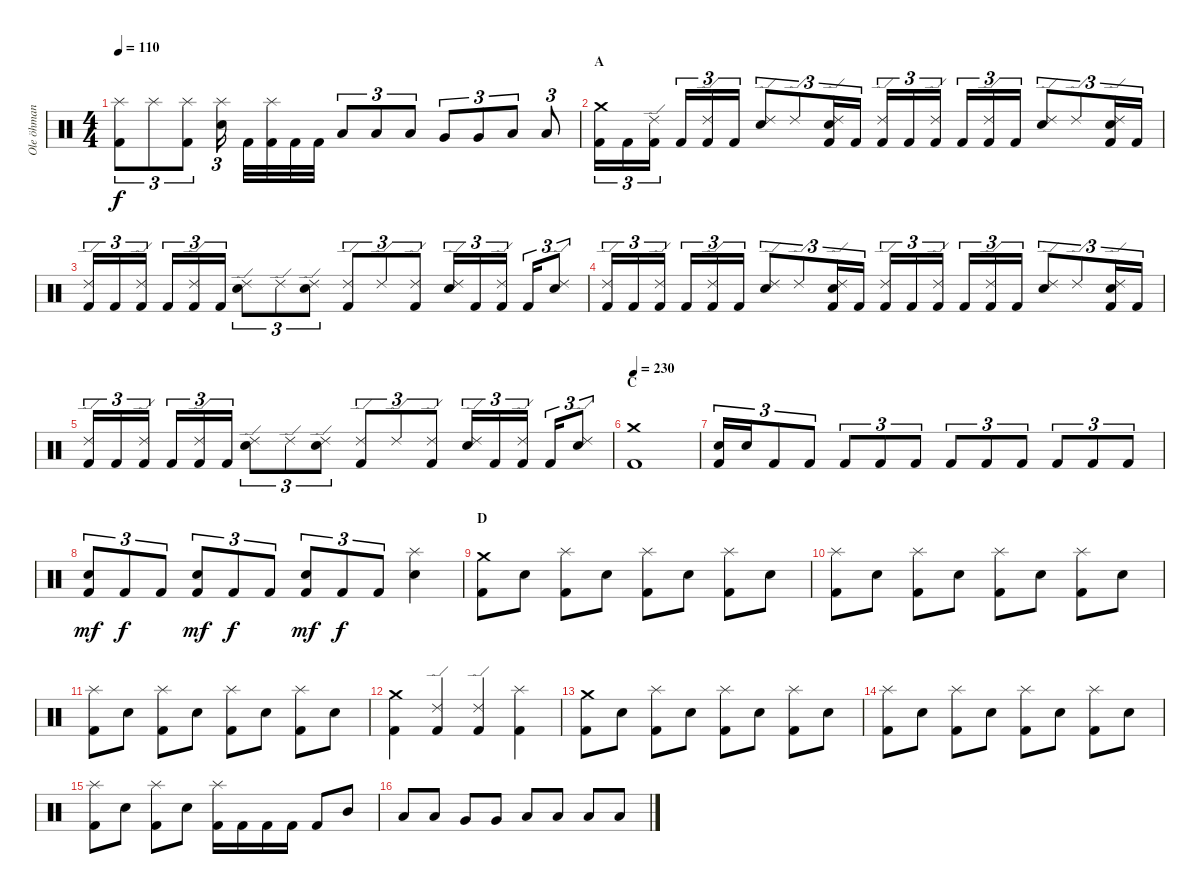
\track ("Ole öhman" "Ole öhman") {instrument percussion}
\staff {score}
\articulation defaults
\ts (4 4)
\tempo 110
\clef neutral
\ks c
("Splash (hit)" "Kick (hit) 2").8{tu (3 2) dy f} "Splash (hit)".8{tu (3 2)} ("Splash (hit)" "Kick (hit) 2").8{tu (3 2)} ("Splash (hit)" "Electric Snare (hit)").16{tu (3 2)} "Kick (hit) 2".32 ("Splash (hit)" "Kick (hit) 2").32 "Kick (hit) 2".32 "Kick (hit) 2".32 "Low Tom (hit)".8{tu (3 2)} "Low Tom (hit)".8{tu (3 2)} "Low Tom (hit)".8{tu (3 2)} "Very Low Tom (hit)".8{tu (3 2)} "Very Low Tom (hit)".8{tu (3 2)} "Low Floor Tom (hit)".8{tu (3 2)} "Low Floor Tom (hit)".8{tu (3 2)} |
\section ("" "A")
("Crash medium (hit)" "Kick (hit) 2").16{tu (3 2)} "Kick (hit) 2".16{tu (3 2)} ("Ride (edge) 2" "Kick (hit) 2").16{tu (3 2)} "Kick (hit) 2".16{tu (3 2)} ("Ride (edge) 2" "Kick (hit) 2").16{tu (3 2)} "Kick (hit) 2".16{tu (3 2)} ("Ride (edge) 2" "Electric Snare (hit)").8{tu (3 2)} "Ride (edge) 2".8{tu (3 2)} ("Ride (edge) 2" "Electric Snare (hit)" "Kick (hit) 2").16{tu (3 2)} "Kick (hit) 2".16{tu (3 2)} ("Ride (edge) 2" "Kick (hit) 2").16{tu (3 2)} "Kick (hit) 2".16{tu (3 2)} ("Ride (edge) 2" "Kick (hit) 2").16{tu (3 2)} "Kick (hit) 2".16{tu (3 2)} ("Ride (edge) 2" "Kick (hit) 2").16{tu (3 2)} "Kick (hit) 2".16{tu (3 2)} ("Ride (edge) 2" "Electric Snare (hit)").8{tu (3 2)} "Ride (edge) 2".8{tu (3 2)} ("Ride (edge) 2" "Electric Snare (hit)" "Kick (hit) 2").16{tu (3 2)} "Kick (hit) 2".16{tu (3 2)} |
("Ride (edge) 2" "Kick (hit) 2").16{tu (3 2)} "Kick (hit) 2".16{tu (3 2)} ("Ride (edge) 2" "Kick (hit) 2").16{tu (3 2)} "Kick (hit) 2".16{tu (3 2)} ("Ride (edge) 2" "Kick (hit) 2").16{tu (3 2)} "Kick (hit) 2".16{tu (3 2)} ("Ride (edge) 2" "Electric Snare (hit)").8{tu (3 2)} "Ride (edge) 2".8{tu (3 2)} ("Ride (edge) 2" "Electric Snare (hit)").8{tu (3 2)} ("Ride (edge) 2" "Kick (hit) 2").8{tu (3 2)} "Ride (edge) 2".8{tu (3 2)} ("Ride (edge) 2" "Kick (hit) 2").8{tu (3 2)} ("Ride (edge) 2" "Electric Snare (hit)").16{tu (3 2)} "Kick (hit) 2".16{tu (3 2)} ("Ride (edge) 2" "Kick (hit) 2").16{tu (3 2)} "Kick (hit) 2".16{tu (3 2)} ("Ride (edge) 2" "Electric Snare (hit)").8{tu (3 2)} |
("Ride (edge) 2" "Kick (hit) 2").16{tu (3 2)} "Kick (hit) 2".16{tu (3 2)} ("Ride (edge) 2" "Kick (hit) 2").16{tu (3 2)} "Kick (hit) 2".16{tu (3 2)} ("Ride (edge) 2" "Kick (hit) 2").16{tu (3 2)} "Kick (hit) 2".16{tu (3 2)} ("Ride (edge) 2" "Electric Snare (hit)").8{tu (3 2)} "Ride (edge) 2".8{tu (3 2)} ("Ride (edge) 2" "Electric Snare (hit)" "Kick (hit) 2").16{tu (3 2)} "Kick (hit) 2".16{tu (3 2)} ("Ride (edge) 2" "Kick (hit) 2").16{tu (3 2)} "Kick (hit) 2".16{tu (3 2)} ("Ride (edge) 2" "Kick (hit) 2").16{tu (3 2)} "Kick (hit) 2".16{tu (3 2)} ("Ride (edge) 2" "Kick (hit) 2").16{tu (3 2)} "Kick (hit) 2".16{tu (3 2)} ("Ride (edge) 2" "Electric Snare (hit)").8{tu (3 2)} "Ride (edge) 2".8{tu (3 2)} ("Ride (edge) 2" "Electric Snare (hit)" "Kick (hit) 2").16{tu (3 2)} "Kick (hit) 2".16{tu (3 2)} |
("Ride (edge) 2" "Kick (hit) 2").16{tu (3 2)} "Kick (hit) 2".16{tu (3 2)} ("Ride (edge) 2" "Kick (hit) 2").16{tu (3 2)} "Kick (hit) 2".16{tu (3 2)} ("Ride (edge) 2" "Kick (hit) 2").16{tu (3 2)} "Kick (hit) 2".16{tu (3 2)} ("Ride (edge) 2" "Electric Snare (hit)").8{tu (3 2)} "Ride (edge) 2".8{tu (3 2)} ("Ride (edge) 2" "Electric Snare (hit)").8{tu (3 2)} ("Ride (edge) 2" "Kick (hit) 2").8{tu (3 2)} "Ride (edge) 2".8{tu (3 2)} ("Ride (edge) 2" "Kick (hit) 2").8{tu (3 2)} ("Ride (edge) 2" "Electric Snare (hit)").16{tu (3 2)} "Kick (hit) 2".16{tu (3 2)} ("Ride (edge) 2" "Kick (hit) 2").16{tu (3 2)} "Kick (hit) 2".16{tu (3 2)} ("Ride (edge) 2" "Electric Snare (hit)").8{tu (3 2)} |
\section ("" "C")
\tempo 230
("Crash medium (hit)" "Kick (hit) 2").1 |
("Electric Snare (hit)" "Kick (hit) 2").16{tu (3 2)} "Electric Snare (hit)".16{tu (3 2)} "Kick (hit) 2".8{tu (3 2)} "Kick (hit) 2".8{tu (3 2)} "Kick (hit) 2".8{tu (3 2)} "Kick (hit) 2".8{tu (3 2)} "Kick (hit) 2".8{tu (3 2)} "Kick (hit) 2".8{tu (3 2)} "Kick (hit) 2".8{tu (3 2)} "Kick (hit) 2".8{tu (3 2)} "Kick (hit) 2".8{tu (3 2)} "Kick (hit) 2".8{tu (3 2)} "Kick (hit) 2".8{tu (3 2)} |
("Electric Snare (hit)" "Kick (hit) 2").8{tu (3 2) dy mf} "Kick (hit) 2".8{tu (3 2) dy f} "Kick (hit) 2".8{tu (3 2)} ("Electric Snare (hit)" "Kick (hit) 2").8{tu (3 2) dy mf} "Kick (hit) 2".8{tu (3 2) dy f} "Kick (hit) 2".8{tu (3 2)} ("Electric Snare (hit)" "Kick (hit) 2").8{tu (3 2) dy mf} "Kick (hit) 2".8{tu (3 2) dy f} "Kick (hit) 2".8{tu (3 2)} ("Splash (hit)" "Electric Snare (hit)").4 |
\section ("" "D")
("Crash medium (hit)" "Kick (hit) 2").8 "Electric Snare (hit)".8 ("Splash (hit)" "Kick (hit) 2").8 "Electric Snare (hit)".8 ("Splash (hit)" "Kick (hit) 2").8 "Electric Snare (hit)".8 ("Splash (hit)" "Kick (hit) 2").8 "Electric Snare (hit)".8 |
("Splash (hit)" "Kick (hit) 2").8 "Electric Snare (hit)".8 ("Splash (hit)" "Kick (hit) 2").8 "Electric Snare (hit)".8 ("Splash (hit)" "Kick (hit) 2").8 "Electric Snare (hit)".8 ("Splash (hit)" "Kick (hit) 2").8 "Electric Snare (hit)".8 |
("Splash (hit)" "Kick (hit) 2").8 "Electric Snare (hit)".8 ("Splash (hit)" "Kick (hit) 2").8 "Electric Snare (hit)".8 ("Splash (hit)" "Kick (hit) 2").8 "Electric Snare (hit)".8 ("Splash (hit)" "Kick (hit) 2").8 "Electric Snare (hit)".8 |
("Crash medium (hit)" "Kick (hit) 2").4 ("Ride (edge) 2" "Kick (hit) 2").4 ("Ride (edge) 2" "Kick (hit) 2").4 ("Splash (hit)" "Kick (hit) 2").4 |
("Crash medium (hit)" "Kick (hit) 2").8 "Electric Snare (hit)".8 ("Splash (hit)" "Kick (hit) 2").8 "Electric Snare (hit)".8 ("Splash (hit)" "Kick (hit) 2").8 "Electric Snare (hit)".8 ("Splash (hit)" "Kick (hit) 2").8 "Electric Snare (hit)".8 |
("Splash (hit)" "Kick (hit) 2").8 "Electric Snare (hit)".8 ("Splash (hit)" "Kick (hit) 2").8 "Electric Snare (hit)".8 ("Splash (hit)" "Kick (hit) 2").8 "Electric Snare (hit)".8 ("Splash (hit)" "Kick (hit) 2").8 "Electric Snare (hit)".8 |
("Splash (hit)" "Kick (hit) 2").8 "Electric Snare (hit)".8 ("Splash (hit)" "Kick (hit) 2").8 "Electric Snare (hit)".8 ("Splash (hit)" "Kick (hit) 2").16 "Kick (hit) 2".16 "Kick (hit) 2".16 "Kick (hit) 2".16 "Kick (hit) 2".8 "Mid Tom (hit)".8 |
"Low Tom (hit)".8 "Low Tom (hit)".8 "Very Low Tom (hit)".8 "Very Low Tom (hit)".8 "Low Floor Tom (hit)".8 "Low Floor Tom (hit)".8 "Low Floor Tom (hit)".8 "Low Floor Tom (hit)".8
